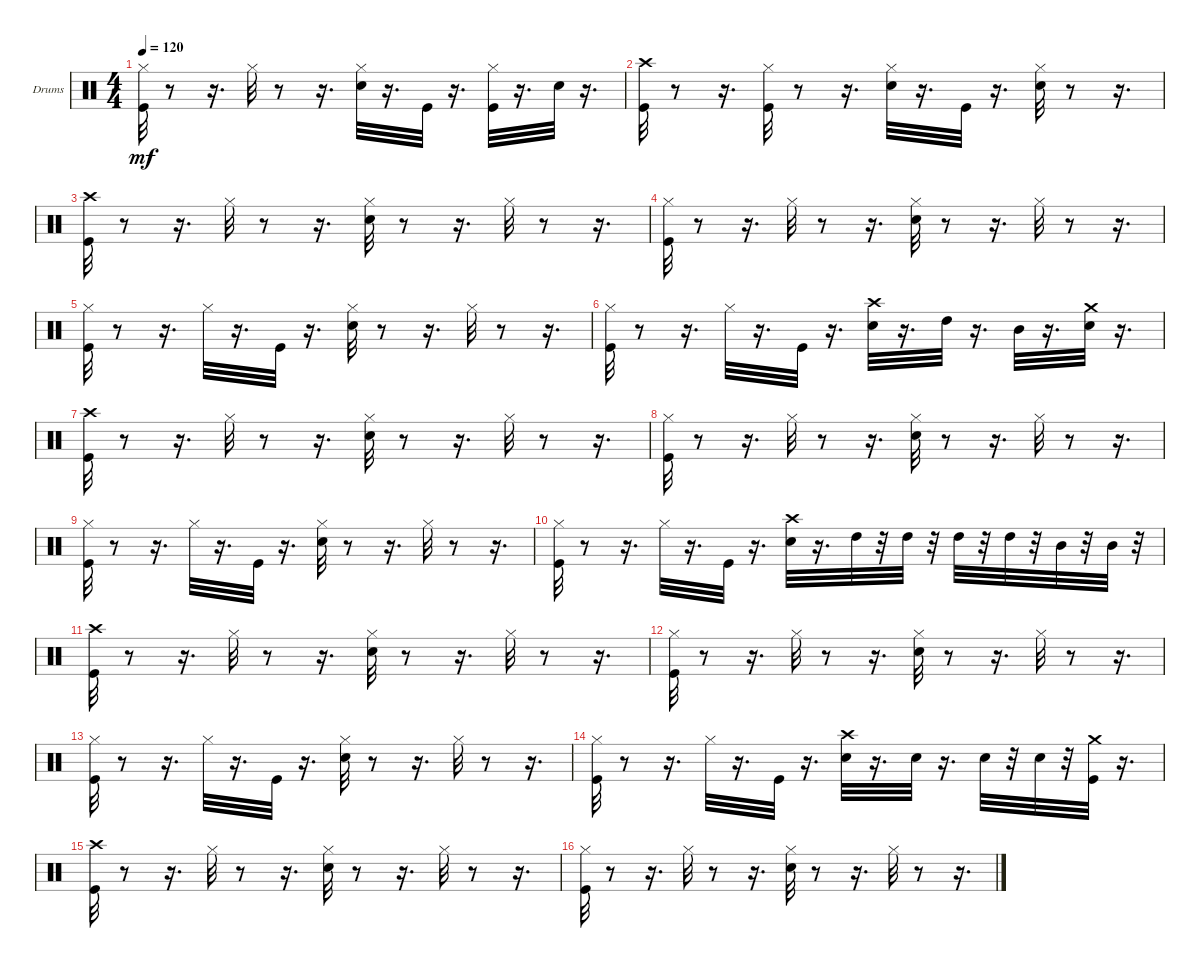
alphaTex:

\bracketExtendMode groupsimilarinstruments
\firstSystemTrackNameOrientation horizontal
\otherSystemsTrackNameOrientation horizontal
\track ("" "Drums") {instrument percussion}
\staff {score}
\articulation defaults
\ts (4 4)
\tempo 120
\clef neutral
\ks c
("Hi-Hat (closed)" "Kick (hit)").32{dy mf} r.8 r.16{d} "Hi-Hat (closed)".32 r.8 r.16{d} ("Hi-Hat (closed)" "Snare (hit) 2").32 r.16{d} "Kick (hit)".32 r.16{d} ("Hi-Hat (closed)" "Kick (hit)").32 r.16{d} "Snare (hit) 2".32 r.16{d} |
("Crash high (hit)" "Kick (hit)").32 r.8 r.16{d} ("Hi-Hat (closed)" "Kick (hit)").32 r.8 r.16{d} ("Hi-Hat (closed)" "Snare (hit) 2").32 r.16{d} "Kick (hit)".32 r.16{d} ("Hi-Hat (closed)" "Snare (hit) 2").32 r.8 r.16{d} |
("Crash high (hit)" "Kick (hit)").32 r.8 r.16{d} "Hi-Hat (closed)".32 r.8 r.16{d} ("Hi-Hat (closed)" "Snare (hit) 2").32 r.8 r.16{d} "Hi-Hat (closed)".32 r.8 r.16{d} |
("Hi-Hat (closed)" "Kick (hit)").32 r.8 r.16{d} "Hi-Hat (closed)".32 r.8 r.16{d} ("Snare (hit) 2" "Hi-Hat (closed)").32 r.8 r.16{d} "Hi-Hat (closed)".32 r.8 r.16{d} |
("Hi-Hat (closed)" "Kick (hit)").32 r.8 r.16{d} "Hi-Hat (closed)".32 r.16{d} "Kick (hit)".32 r.16{d} ("Snare (hit) 2" "Hi-Hat (closed)").32 r.8 r.16{d} "Hi-Hat (closed)".32 r.8 r.16{d} |
("Hi-Hat (closed)" "Kick (hit)").32 r.8 r.16{d} "Hi-Hat (closed)".32 r.16{d} "Kick (hit)".32 r.16{d} ("Crash high (hit)" "Snare (hit) 2").32 r.16{d} "High Tom (hit)".32 r.16{d} "Mid Tom (hit)".32 r.16{d} ("Crash medium (hit)" "Snare (hit) 2").32 r.16{d} |
("Crash high (hit)" "Kick (hit)").32 r.8 r.16{d} "Hi-Hat (closed)".32 r.8 r.16{d} ("Hi-Hat (closed)" "Snare (hit) 2").32 r.8 r.16{d} "Hi-Hat (closed)".32 r.8 r.16{d} |
("Hi-Hat (closed)" "Kick (hit)").32 r.8 r.16{d} "Hi-Hat (closed)".32 r.8 r.16{d} ("Snare (hit) 2" "Hi-Hat (closed)").32 r.8 r.16{d} "Hi-Hat (closed)".32 r.8 r.16{d} |
("Hi-Hat (closed)" "Kick (hit)").32 r.8 r.16{d} "Hi-Hat (closed)".32 r.16{d} "Kick (hit)".32 r.16{d} ("Snare (hit) 2" "Hi-Hat (closed)").32 r.8 r.16{d} "Hi-Hat (closed)".32 r.8 r.16{d} |
("Hi-Hat (closed)" "Kick (hit)").32 r.8 r.16{d} "Hi-Hat (closed)".32 r.16{d} "Kick (hit)".32 r.16{d} ("Crash high (hit)" "Snare (hit) 2").32 r.16{d} "High Tom (hit)".32 r.32 "High Tom (hit)".32 r.32 "High Tom (hit)".32 r.32 "High Tom (hit)".32 r.32 "Mid Tom (hit)".32 r.32 "Mid Tom (hit)".32 r.32 |
("Crash high (hit)" "Kick (hit)").32 r.8 r.16{d} "Hi-Hat (closed)".32 r.8 r.16{d} ("Hi-Hat (closed)" "Snare (hit) 2").32 r.8 r.16{d} "Hi-Hat (closed)".32 r.8 r.16{d} |
("Hi-Hat (closed)" "Kick (hit)").32 r.8 r.16{d} "Hi-Hat (closed)".32 r.8 r.16{d} ("Snare (hit) 2" "Hi-Hat (closed)").32 r.8 r.16{d} "Hi-Hat (closed)".32 r.8 r.16{d} |
("Hi-Hat (closed)" "Kick (hit)").32 r.8 r.16{d} "Hi-Hat (closed)".32 r.16{d} "Kick (hit)".32 r.16{d} ("Snare (hit) 2" "Hi-Hat (closed)").32 r.8 r.16{d} "Hi-Hat (closed)".32 r.8 r.16{d} |
("Hi-Hat (closed)" "Kick (hit)").32 r.8 r.16{d} "Hi-Hat (closed)".32 r.16{d} "Kick (hit)".32 r.16{d} ("Crash high (hit)" "Snare (hit) 2").32 r.16{d} "Snare (hit) 2".32 r.16{d} "Snare (hit) 2".32 r.32 "Snare (hit) 2".32 r.32 ("Kick (hit)" "Crash medium (hit)").32 r.16{d} |
("Crash high (hit)" "Kick (hit)").32 r.8 r.16{d} "Hi-Hat (closed)".32 r.8 r.16{d} ("Hi-Hat (closed)" "Snare (hit) 2").32 r.8 r.16{d} "Hi-Hat (closed)".32 r.8 r.16{d} |
("Hi-Hat (closed)" "Kick (hit)").32 r.8 r.16{d} "Hi-Hat (closed)".32 r.8 r.16{d} ("Snare (hit) 2" "Hi-Hat (closed)").32 r.8 r.16{d} "Hi-Hat (closed)".32 r.8 r.16{d}
